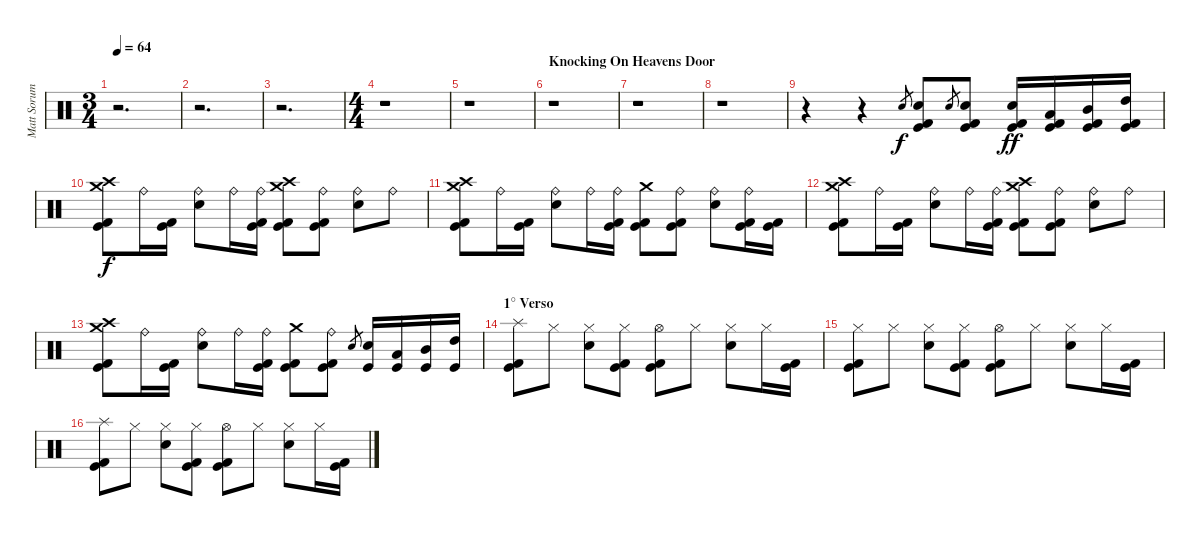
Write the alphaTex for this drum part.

\track ("Matt Sorum" "Matt Sorum") {instrument percussion}
\staff {score}
\articulation defaults
\ts (3 4)
\tempo 64
\clef neutral
\ks c
r.2{d dy f} |
r.2{d} |
r.2{d} |
\ts (4 4)
r.1 |
r.1 |
\section ("" "Knocking On Heavens Door")
r.1 |
r.1 |
r.1 |
r.4 r.4 "Electric Snare (hit)".8{gr} ("Electric Snare (hit)" "Kick (hit) 2" "Kick (hit)").8 "Electric Snare (hit)".8{gr} ("Electric Snare (hit)" "Kick (hit) 2" "Kick (hit)").8 ("Electric Snare (hit)" "Kick (hit) 2" "Kick (hit)").16{dy ff} ("Low Tom (hit)" "Kick (hit) 2" "Kick (hit)").16 ("Mid Tom (hit)" "Kick (hit) 2" "Kick (hit)").16 ("High Tom (hit)" "Kick (hit) 2" "Kick (hit)").16 |
("Crash medium (hit)" "Crash high (hit)" "Kick (hit) 2" "Kick (hit)").8{dy f} "Ride (bell)".16 ("Kick (hit) 2" "Kick (hit)").16 ("Ride (bell)" "Electric Snare (hit)").8 "Ride (bell)".16 ("Ride (bell)" "Kick (hit) 2" "Kick (hit)").16 ("Crash medium (hit)" "Crash high (hit)" "Kick (hit) 2" "Kick (hit)").8 ("Ride (bell)" "Kick (hit) 2" "Kick (hit)").8 ("Ride (bell)" "Electric Snare (hit)").8 "Ride (bell)".8 |
("Crash medium (hit)" "Crash high (hit)" "Kick (hit) 2" "Kick (hit)").8 "Ride (bell)".16 ("Kick (hit) 2" "Kick (hit)").16 ("Ride (bell)" "Electric Snare (hit)").8 "Ride (bell)".16 ("Ride (bell)" "Kick (hit) 2" "Kick (hit)").16 ("Crash medium (hit)" "Kick (hit) 2" "Kick (hit)").8 ("Ride (bell)" "Kick (hit) 2" "Kick (hit)").8 ("Ride (bell)" "Electric Snare (hit)").8 ("Ride (bell)" "Kick (hit) 2" "Kick (hit)").16 ("Kick (hit) 2" "Kick (hit)").16 |
("Crash medium (hit)" "Crash high (hit)" "Kick (hit) 2" "Kick (hit)").8 "Ride (bell)".16 ("Kick (hit) 2" "Kick (hit)").16 ("Ride (bell)" "Electric Snare (hit)").8 "Ride (bell)".16 ("Ride (bell)" "Kick (hit) 2" "Kick (hit)").16 ("Crash medium (hit)" "Crash high (hit)" "Kick (hit) 2" "Kick (hit)").8 ("Ride (bell)" "Kick (hit) 2" "Kick (hit)").8 ("Ride (bell)" "Electric Snare (hit)").8 "Ride (bell)".8 |
("Crash medium (hit)" "Crash high (hit)" "Kick (hit) 2" "Kick (hit)").8 "Ride (bell)".16 ("Kick (hit) 2" "Kick (hit)").16 ("Ride (bell)" "Electric Snare (hit)").8 "Ride (bell)".16 ("Ride (bell)" "Kick (hit) 2" "Kick (hit)").16 ("Crash medium (hit)" "Kick (hit) 2" "Kick (hit)").8 ("Ride (bell)" "Kick (hit) 2" "Kick (hit)").8 "Electric Snare (hit)".8{gr} ("Electric Snare (hit)" "Kick (hit)").16 ("Low Tom (hit)" "Kick (hit)").16 ("Mid Tom (hit)" "Kick (hit)").16 ("High Tom (hit)" "Kick (hit)").16 |
\section ("" "1° Verso")
("Splash (hit)" "Kick (hit) 2" "Kick (hit)").8 "Hi-Hat (closed)".8 ("Hi-Hat (closed)" "Electric Snare (hit)").8 ("Hi-Hat (closed)" "Kick (hit) 2" "Kick (hit)").8 ("Hi-Hat (open)" "Kick (hit) 2" "Kick (hit)").8 "Hi-Hat (closed)".8 ("Hi-Hat (closed)" "Electric Snare (hit)").8 "Hi-Hat (closed)".16 ("Kick (hit) 2" "Kick (hit)").16 |
("Hi-Hat (closed)" "Kick (hit) 2" "Kick (hit)").8 "Hi-Hat (closed)".8 ("Hi-Hat (closed)" "Electric Snare (hit)").8 ("Hi-Hat (closed)" "Kick (hit) 2" "Kick (hit)").8 ("Hi-Hat (open)" "Kick (hit) 2" "Kick (hit)").8 "Hi-Hat (closed)".8 ("Hi-Hat (closed)" "Electric Snare (hit)").8 "Hi-Hat (closed)".16 ("Kick (hit) 2" "Kick (hit)").16 |
("Splash (hit)" "Kick (hit) 2" "Kick (hit)").8 "Hi-Hat (closed)".8 ("Hi-Hat (closed)" "Electric Snare (hit)").8 ("Hi-Hat (closed)" "Kick (hit) 2" "Kick (hit)").8 ("Hi-Hat (open)" "Kick (hit) 2" "Kick (hit)").8 "Hi-Hat (closed)".8 ("Hi-Hat (closed)" "Electric Snare (hit)").8 "Hi-Hat (closed)".16 ("Kick (hit) 2" "Kick (hit)").16
